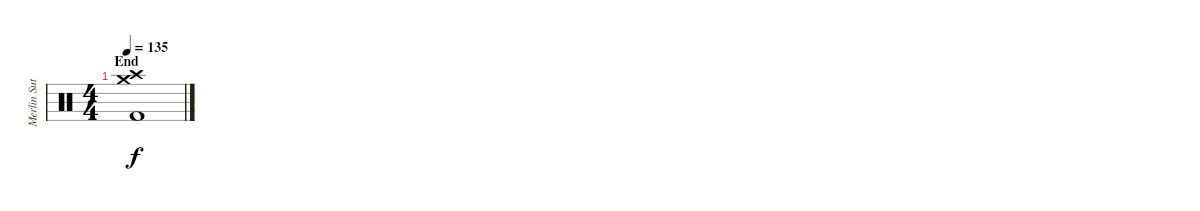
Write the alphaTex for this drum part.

\track ("Merlin Sutter" "Merlin Sut") {instrument percussion}
\staff {score}
\articulation defaults
\ts (4 4)
\section ("" "End")
\tempo 135
\clef neutral
\ks c
("Crash high (hit)" "Crash medium (hit)" "Kick (hit) 2").1{dy f}
